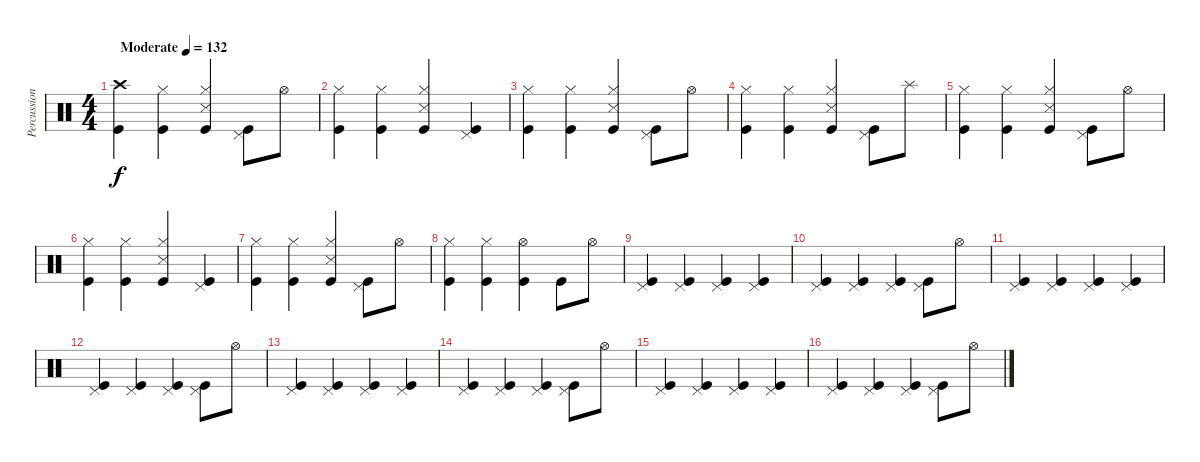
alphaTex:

\track ("Percussion" "Percussion") {instrument percussion}
\staff {score}
\articulation defaults
\ts (4 4)
\tempo (132 "Moderate")
\clef neutral
\ks c
("Crash high (hit)" "Kick (hit)").4{dy f} ("Hi-Hat (closed)" "Kick (hit)").4 ("Hi-Hat (closed)" "Snare (side stick) 3" "Kick (hit)").4 ("Pedal Hi-Hat (hit)" "Kick (hit)").8 "Hi-Hat (open)".8 |
("Hi-Hat (closed)" "Kick (hit)").4 ("Hi-Hat (closed)" "Kick (hit)").4 ("Hi-Hat (closed)" "Snare (side stick) 3" "Kick (hit)").4 ("Pedal Hi-Hat (hit)" "Kick (hit)").4 |
("Hi-Hat (closed)" "Kick (hit)").4 ("Hi-Hat (closed)" "Kick (hit)").4 ("Hi-Hat (closed)" "Snare (side stick) 3" "Kick (hit)").4 ("Pedal Hi-Hat (hit)" "Kick (hit)").8 "Hi-Hat (open)".8 |
("Hi-Hat (closed)" "Kick (hit)").4 ("Hi-Hat (closed)" "Kick (hit)").4 ("Hi-Hat (closed)" "Snare (side stick) 3" "Kick (hit)").4 ("Pedal Hi-Hat (hit)" "Kick (hit)").8 "Splash (hit)".8 |
("Hi-Hat (closed)" "Kick (hit)").4 ("Hi-Hat (closed)" "Kick (hit)").4 ("Hi-Hat (closed)" "Snare (side stick) 3" "Kick (hit)").4 ("Pedal Hi-Hat (hit)" "Kick (hit)").8 "Hi-Hat (open)".8 |
("Hi-Hat (closed)" "Kick (hit)").4 ("Hi-Hat (closed)" "Kick (hit)").4 ("Hi-Hat (closed)" "Snare (side stick) 3" "Kick (hit)").4 ("Pedal Hi-Hat (hit)" "Kick (hit)").4 |
("Hi-Hat (closed)" "Kick (hit)").4 ("Hi-Hat (closed)" "Kick (hit)").4 ("Hi-Hat (closed)" "Snare (side stick) 3" "Kick (hit)").4 ("Pedal Hi-Hat (hit)" "Kick (hit)").8 "Hi-Hat (open)".8 |
("Hi-Hat (closed)" "Kick (hit)").4 ("Hi-Hat (closed)" "Kick (hit)").4 ("Hi-Hat (open)" "Kick (hit)").4 "Kick (hit)".8 "Hi-Hat (open)".8 |
("Pedal Hi-Hat (hit)" "Kick (hit)").4 ("Pedal Hi-Hat (hit)" "Kick (hit)").4 ("Pedal Hi-Hat (hit)" "Kick (hit)").4 ("Pedal Hi-Hat (hit)" "Kick (hit)").4 |
("Pedal Hi-Hat (hit)" "Kick (hit)").4 ("Pedal Hi-Hat (hit)" "Kick (hit)").4 ("Pedal Hi-Hat (hit)" "Kick (hit)").4 ("Pedal Hi-Hat (hit)" "Kick (hit)").8 "Hi-Hat (open)".8 |
("Pedal Hi-Hat (hit)" "Kick (hit)").4 ("Pedal Hi-Hat (hit)" "Kick (hit)").4 ("Pedal Hi-Hat (hit)" "Kick (hit)").4 ("Pedal Hi-Hat (hit)" "Kick (hit)").4 |
("Pedal Hi-Hat (hit)" "Kick (hit)").4 ("Pedal Hi-Hat (hit)" "Kick (hit)").4 ("Pedal Hi-Hat (hit)" "Kick (hit)").4 ("Pedal Hi-Hat (hit)" "Kick (hit)").8 "Hi-Hat (open)".8 |
("Pedal Hi-Hat (hit)" "Kick (hit)").4 ("Pedal Hi-Hat (hit)" "Kick (hit)").4 ("Pedal Hi-Hat (hit)" "Kick (hit)").4 ("Pedal Hi-Hat (hit)" "Kick (hit)").4 |
("Pedal Hi-Hat (hit)" "Kick (hit)").4 ("Pedal Hi-Hat (hit)" "Kick (hit)").4 ("Pedal Hi-Hat (hit)" "Kick (hit)").4 ("Pedal Hi-Hat (hit)" "Kick (hit)").8 "Hi-Hat (open)".8 |
("Pedal Hi-Hat (hit)" "Kick (hit)").4 ("Pedal Hi-Hat (hit)" "Kick (hit)").4 ("Pedal Hi-Hat (hit)" "Kick (hit)").4 ("Pedal Hi-Hat (hit)" "Kick (hit)").4 |
("Pedal Hi-Hat (hit)" "Kick (hit)").4 ("Pedal Hi-Hat (hit)" "Kick (hit)").4 ("Pedal Hi-Hat (hit)" "Kick (hit)").4 ("Pedal Hi-Hat (hit)" "Kick (hit)").8 "Hi-Hat (open)".8
